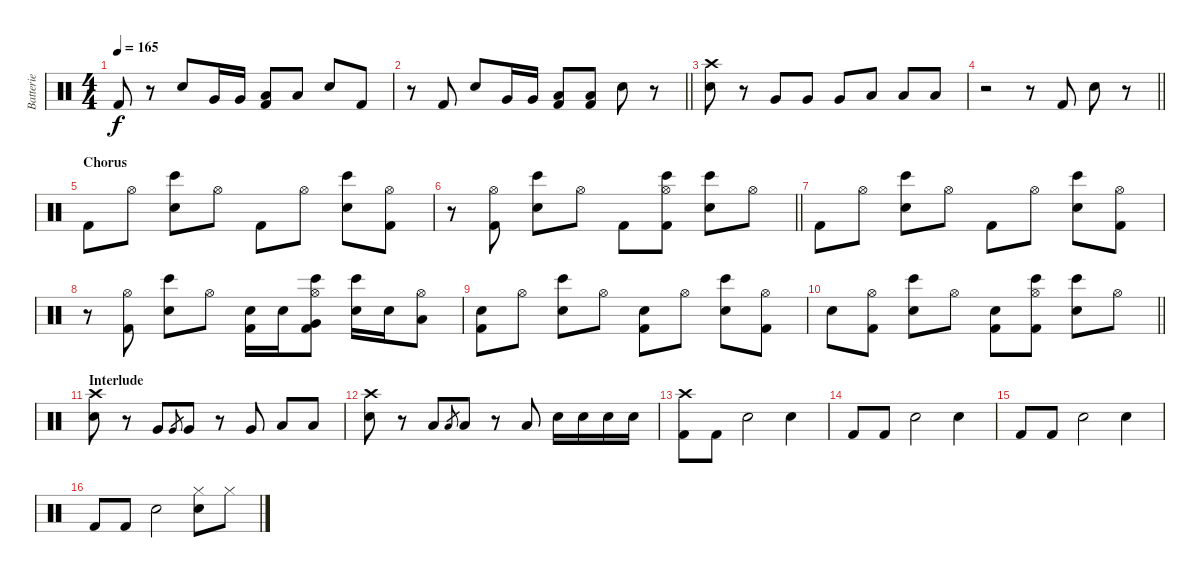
\track ("Batterie" "Batterie") {instrument percussion}
\staff {score}
\articulation defaults
\ts (4 4)
\tempo 165
\clef neutral
\ks c "Kick (hit) 2".8{dy f}
r.8 "Electric Snare (hit)".8 "Very Low Tom (hit)".16 "Very Low Tom (hit)".16 ("Kick (hit) 2" "Low Floor Tom (hit)").8 "Low Floor Tom (hit)".8 "Electric Snare (hit)".8 "Kick (hit) 2".8 |
\barLineRight lightlight
r.8 "Kick (hit) 2".8 "Electric Snare (hit)".8 "Very Low Tom (hit)".16 "Very Low Tom (hit)".16 ("Kick (hit) 2" "Low Floor Tom (hit)").8 ("Kick (hit) 2" "Low Floor Tom (hit)").8 "Electric Snare (hit)".8 r.8 |
("Crash high (hit)" "Electric Snare (hit)").8 r.8 "Very Low Tom (hit)".8 "Very Low Tom (hit)".8 "Very Low Tom (hit)".8 "Low Floor Tom (hit)".8 "Low Floor Tom (hit)".8 "Low Floor Tom (hit)".8 |
\barLineRight lightlight
r.2 r.8 "Kick (hit) 2".8 "Electric Snare (hit)".8 r.8 |
\section ("" "Chorus")
"Kick (hit) 2".8 "Hi-Hat (open)".8 ("Electric Snare (hit)" "Bongo High (hit)").8 "Hi-Hat (open)".8 "Kick (hit) 2".8 "Hi-Hat (open)".8 ("Electric Snare (hit)" "Bongo High (hit)").8 ("Hi-Hat (open)" "Kick (hit) 2").8 |
\barLineRight lightlight
r.8 ("Hi-Hat (open)" "Kick (hit) 2").8 ("Electric Snare (hit)" "Bongo High (hit)").8 "Hi-Hat (open)".8 "Kick (hit) 2".8 ("Hi-Hat (open)" "Kick (hit) 2" "Bongo High (hit)").8 ("Electric Snare (hit)" "Bongo High (hit)").8 "Hi-Hat (open)".8 |
"Kick (hit) 2".8 "Hi-Hat (open)".8 ("Electric Snare (hit)" "Bongo High (hit)").8 "Hi-Hat (open)".8 "Kick (hit) 2".8 "Hi-Hat (open)".8 ("Electric Snare (hit)" "Bongo High (hit)").8 ("Hi-Hat (open)" "Kick (hit) 2").8 |
r.8 ("Hi-Hat (open)" "Kick (hit) 2").8 ("Electric Snare (hit)" "Bongo High (hit)").8 "Hi-Hat (open)".8 ("Kick (hit) 2" "Electric Snare (hit)").16 "Electric Snare (hit)".16 ("Hi-Hat (open)" "Kick (hit) 2" "Very Low Tom (hit)" "Bongo High (hit)").8 ("Electric Snare (hit)" "Bongo High (hit)").16 "Electric Snare (hit)".16 ("Hi-Hat (open)" "Low Floor Tom (hit)").8 |
("Kick (hit) 2" "Electric Snare (hit)").8 "Hi-Hat (open)".8 ("Electric Snare (hit)" "Bongo High (hit)").8 "Hi-Hat (open)".8 ("Kick (hit) 2" "Electric Snare (hit)").8 "Hi-Hat (open)".8 ("Electric Snare (hit)" "Bongo High (hit)").8 ("Hi-Hat (open)" "Kick (hit) 2").8 |
\barLineRight lightlight "Electric Snare (hit)".8
("Hi-Hat (open)" "Kick (hit) 2").8 ("Electric Snare (hit)" "Bongo High (hit)").8 "Hi-Hat (open)".8 ("Kick (hit) 2" "Electric Snare (hit)").8 ("Hi-Hat (open)" "Kick (hit) 2" "Bongo High (hit)").8 ("Electric Snare (hit)" "Bongo High (hit)").8 "Hi-Hat (open)".8 |
\section ("" "Interlude")
("Crash high (hit)" "Electric Snare (hit)").8 r.8 "Very Low Tom (hit)".8 "Very Low Tom (hit)".8{gr} "Very Low Tom (hit)".8 r.8 "Very Low Tom (hit)".8 "Low Floor Tom (hit)".8 "Low Floor Tom (hit)".8 |
("Crash high (hit)" "Electric Snare (hit)").8 r.8 "Low Tom (hit)".8 "Low Tom (hit)".8{gr} "Low Tom (hit)".8 r.8 "Low Tom (hit)".8 "Electric Snare (hit)".16 "Electric Snare (hit)".16 "Electric Snare (hit)".16 "Electric Snare (hit)".16 |
("Crash high (hit)" "Kick (hit) 2").8 "Kick (hit) 2".8 "Electric Snare (hit)".2 "Electric Snare (hit)".4 |
"Kick (hit) 2".8 "Kick (hit) 2".8 "Electric Snare (hit)".2 "Electric Snare (hit)".4 |
"Kick (hit) 2".8 "Kick (hit) 2".8 "Electric Snare (hit)".2 "Electric Snare (hit)".4 |
"Kick (hit) 2".8 "Kick (hit) 2".8 "Electric Snare (hit)".2 ("Hi-Hat (closed)" "Electric Snare (hit)").8 "Hi-Hat (closed)".8
